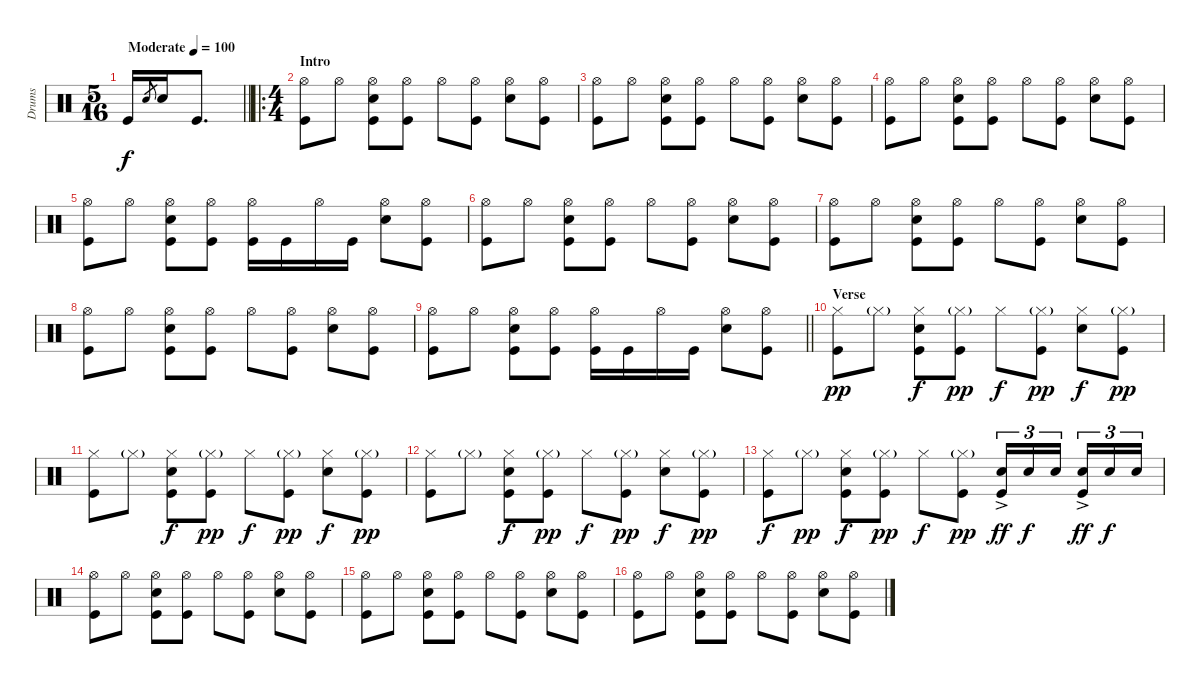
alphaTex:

\track ("Drums" "Drums") {instrument percussion}
\staff {score}
\articulation defaults
\ts (5 16)
\tempo (100 "Moderate")
\clef neutral
\barLineRight lightlight
\ks c "Kick (hit)".16{dy f} "Snare (hit) 2".8{gr} "Snare (hit) 2".16 "Kick (hit)".8{d}
|
\ro
\ts (4 4)
\section ("" "Intro")
("Hi-Hat (open)" "Kick (hit)").8 "Hi-Hat (open)".8 ("Snare (hit) 2" "Hi-Hat (open)" "Kick (hit)").8 ("Hi-Hat (open)" "Kick (hit)").8 "Hi-Hat (open)".8 ("Hi-Hat (open)" "Kick (hit)").8 ("Snare (hit) 2" "Hi-Hat (open)").8 ("Hi-Hat (open)" "Kick (hit)").8 |
("Hi-Hat (open)" "Kick (hit)").8 "Hi-Hat (open)".8 ("Snare (hit) 2" "Hi-Hat (open)" "Kick (hit)").8 ("Hi-Hat (open)" "Kick (hit)").8 "Hi-Hat (open)".8 ("Hi-Hat (open)" "Kick (hit)").8 ("Snare (hit) 2" "Hi-Hat (open)").8 ("Hi-Hat (open)" "Kick (hit)").8 |
("Hi-Hat (open)" "Kick (hit)").8 "Hi-Hat (open)".8 ("Snare (hit) 2" "Hi-Hat (open)" "Kick (hit)").8 ("Hi-Hat (open)" "Kick (hit)").8 "Hi-Hat (open)".8 ("Hi-Hat (open)" "Kick (hit)").8 ("Snare (hit) 2" "Hi-Hat (open)").8 ("Hi-Hat (open)" "Kick (hit)").8 |
("Hi-Hat (open)" "Kick (hit)").8 "Hi-Hat (open)".8 ("Snare (hit) 2" "Hi-Hat (open)" "Kick (hit)").8 ("Hi-Hat (open)" "Kick (hit)").8 ("Hi-Hat (open)" "Kick (hit)").16 "Kick (hit)".16 "Hi-Hat (open)".16 "Kick (hit)".16 ("Snare (hit) 2" "Hi-Hat (open)").8 ("Hi-Hat (open)" "Kick (hit)").8 |
("Hi-Hat (open)" "Kick (hit)").8 "Hi-Hat (open)".8 ("Snare (hit) 2" "Hi-Hat (open)" "Kick (hit)").8 ("Hi-Hat (open)" "Kick (hit)").8 "Hi-Hat (open)".8 ("Hi-Hat (open)" "Kick (hit)").8 ("Snare (hit) 2" "Hi-Hat (open)").8 ("Hi-Hat (open)" "Kick (hit)").8 |
("Hi-Hat (open)" "Kick (hit)").8 "Hi-Hat (open)".8 ("Snare (hit) 2" "Hi-Hat (open)" "Kick (hit)").8 ("Hi-Hat (open)" "Kick (hit)").8 "Hi-Hat (open)".8 ("Hi-Hat (open)" "Kick (hit)").8 ("Snare (hit) 2" "Hi-Hat (open)").8 ("Hi-Hat (open)" "Kick (hit)").8 |
("Hi-Hat (open)" "Kick (hit)").8 "Hi-Hat (open)".8 ("Snare (hit) 2" "Hi-Hat (open)" "Kick (hit)").8 ("Hi-Hat (open)" "Kick (hit)").8 "Hi-Hat (open)".8 ("Hi-Hat (open)" "Kick (hit)").8 ("Snare (hit) 2" "Hi-Hat (open)").8 ("Hi-Hat (open)" "Kick (hit)").8 |
\barLineRight lightlight
("Hi-Hat (open)" "Kick (hit)").8 "Hi-Hat (open)".8 ("Snare (hit) 2" "Hi-Hat (open)" "Kick (hit)").8 ("Hi-Hat (open)" "Kick (hit)").8 ("Hi-Hat (open)" "Kick (hit)").16 "Kick (hit)".16 "Hi-Hat (open)".16 "Kick (hit)".16 ("Snare (hit) 2" "Hi-Hat (open)").8 ("Hi-Hat (open)" "Kick (hit)").8 |
\section ("" "Verse")
("Hi-Hat (closed)" "Kick (hit)").8{dy pp} "Hi-Hat (closed)"{g}.8 ("Snare (hit) 2" "Hi-Hat (closed)" "Kick (hit)").8{dy f} ("Hi-Hat (closed)"{g} "Kick (hit)").8{dy pp} "Hi-Hat (closed)".8{dy f} ("Hi-Hat (closed)"{g} "Kick (hit)").8{dy pp} ("Snare (hit) 2" "Hi-Hat (closed)").8{dy f} ("Hi-Hat (closed)"{g} "Kick (hit)").8{dy pp} |
("Hi-Hat (closed)" "Kick (hit)").8 "Hi-Hat (closed)"{g}.8 ("Snare (hit) 2" "Hi-Hat (closed)" "Kick (hit)").8{dy f} ("Hi-Hat (closed)"{g} "Kick (hit)").8{dy pp} "Hi-Hat (closed)".8{dy f} ("Hi-Hat (closed)"{g} "Kick (hit)").8{dy pp} ("Snare (hit) 2" "Hi-Hat (closed)").8{dy f} ("Hi-Hat (closed)"{g} "Kick (hit)").8{dy pp} |
("Hi-Hat (closed)" "Kick (hit)").8 "Hi-Hat (closed)"{g}.8 ("Snare (hit) 2" "Hi-Hat (closed)" "Kick (hit)").8{dy f} ("Hi-Hat (closed)"{g} "Kick (hit)").8{dy pp} "Hi-Hat (closed)".8{dy f} ("Hi-Hat (closed)"{g} "Kick (hit)").8{dy pp} ("Snare (hit) 2" "Hi-Hat (closed)").8{dy f} ("Hi-Hat (closed)"{g} "Kick (hit)").8{dy pp} |
("Hi-Hat (closed)" "Kick (hit)").8{dy f} "Hi-Hat (closed)"{g}.8{dy pp} ("Snare (hit) 2" "Hi-Hat (closed)" "Kick (hit)").8{dy f} ("Hi-Hat (closed)"{g} "Kick (hit)").8{dy pp} "Hi-Hat (closed)".8{dy f} ("Hi-Hat (closed)"{g} "Kick (hit)").8{dy pp} ("Snare (hit) 2"{ac} "Kick (hit)").16{tu (3 2) dy ff} "Snare (hit) 2".16{tu (3 2) dy f} "Snare (hit) 2".16{tu (3 2) beam splitsecondary} ("Snare (hit) 2"{ac} "Kick (hit)").16{tu (3 2) dy ff} "Snare (hit) 2".16{tu (3 2) dy f} "Snare (hit) 2".16{tu (3 2)} |
("Hi-Hat (open)" "Kick (hit)").8 "Hi-Hat (open)".8 ("Snare (hit) 2" "Hi-Hat (open)" "Kick (hit)").8 ("Hi-Hat (open)" "Kick (hit)").8 "Hi-Hat (open)".8 ("Hi-Hat (open)" "Kick (hit)").8 ("Snare (hit) 2" "Hi-Hat (open)").8 ("Hi-Hat (open)" "Kick (hit)").8 |
("Hi-Hat (open)" "Kick (hit)").8 "Hi-Hat (open)".8 ("Snare (hit) 2" "Hi-Hat (open)" "Kick (hit)").8 ("Hi-Hat (open)" "Kick (hit)").8 "Hi-Hat (open)".8 ("Hi-Hat (open)" "Kick (hit)").8 ("Snare (hit) 2" "Hi-Hat (open)").8 ("Hi-Hat (open)" "Kick (hit)").8 |
("Hi-Hat (open)" "Kick (hit)").8 "Hi-Hat (open)".8 ("Snare (hit) 2" "Hi-Hat (open)" "Kick (hit)").8 ("Hi-Hat (open)" "Kick (hit)").8 "Hi-Hat (open)".8 ("Hi-Hat (open)" "Kick (hit)").8 ("Snare (hit) 2" "Hi-Hat (open)").8 ("Hi-Hat (open)" "Kick (hit)").8
